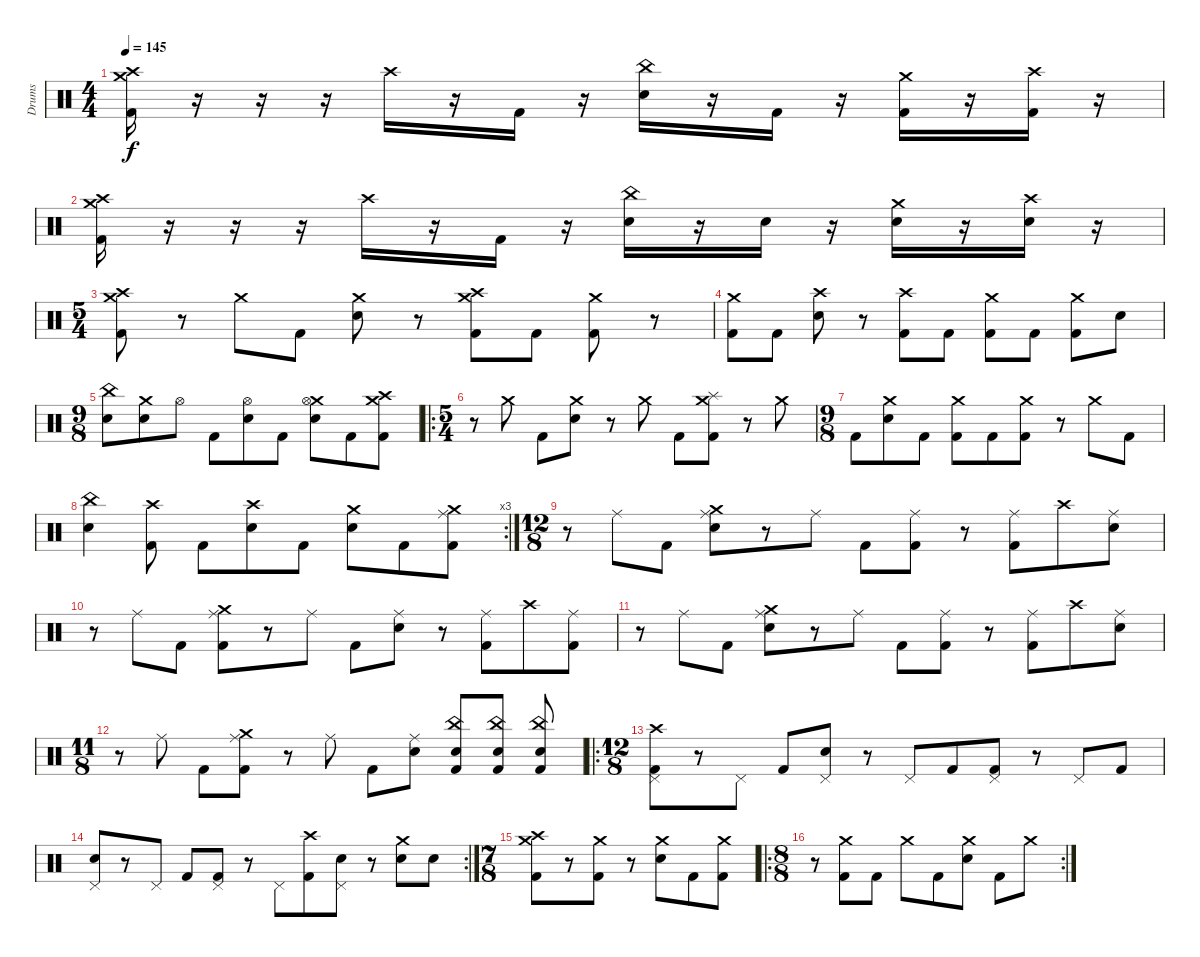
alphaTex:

\track ("Drums" "Drums") {instrument percussion}
\staff {score}
\articulation defaults
\ts (4 4)
\tempo 145
\clef neutral
\ks c
("Crash medium (hit)" "Crash high (hit)" "Kick (hit) 2").16{dy f} r.16 r.16 r.16 "Crash high (hit)".16 r.16 "Kick (hit) 2".16 r.16 ("China (hit)" "Electric Snare (hit)").16 r.16 "Kick (hit) 2".16 r.16 ("Crash medium (hit)" "Kick (hit) 2").16 r.16 ("Crash high (hit)" "Kick (hit) 2").16 r.16 |
("Crash medium (hit)" "Crash high (hit)" "Kick (hit) 2").16 r.16 r.16 r.16 "Crash high (hit)".16 r.16 "Kick (hit) 2".16 r.16 ("China (hit)" "Electric Snare (hit)").16 r.16 "Electric Snare (hit)".16 r.16 ("Crash medium (hit)" "Electric Snare (hit)").16 r.16 ("Crash high (hit)" "Electric Snare (hit)").16 r.16 |
\ts (5 4)
("Crash high (hit)" "Crash medium (hit)" "Kick (hit) 2").8 r.8 "Crash medium (hit)".8 "Kick (hit) 2".8 ("Crash medium (hit)" "Electric Snare (hit)").8 r.8 ("Crash medium (hit)" "Crash high (hit)" "Kick (hit) 2").8 "Kick (hit) 2".8 ("Crash medium (hit)" "Kick (hit) 2").8 r.8 |
("Crash medium (hit)" "Kick (hit) 2").8 "Kick (hit) 2".8 ("Crash high (hit)" "Electric Snare (hit)").8 r.8 ("Crash high (hit)" "Kick (hit) 2").8 "Kick (hit) 2".8 ("Crash medium (hit)" "Kick (hit) 2").8 "Kick (hit) 2".8 ("Crash medium (hit)" "Kick (hit) 2").8 "Electric Snare (hit)".8 |
\ts (9 8)
("China (hit)" "Electric Snare (hit)").8 ("Crash medium (hit)" "Electric Snare (hit)").8 "Hi-Hat (open)".8 "Kick (hit) 2".8 ("Hi-Hat (open)" "Electric Snare (hit)").8 "Kick (hit) 2".8 ("Crash medium (hit)" "Hi-Hat (open)" "Electric Snare (hit)").8 "Kick (hit) 2".8 ("Crash high (hit)" "Crash medium (hit)" "Kick (hit) 2").8 |
\ro
\ts (5 4)
r.8 "Crash medium (hit)".8 "Kick (hit) 2".8 ("Crash medium (hit)" "Electric Snare (hit)").8 r.8 "Crash medium (hit)".8 "Kick (hit) 2".8 ("Splash (hit)" "Crash medium (hit)" "Kick (hit) 2").8 r.8 "Crash medium (hit)".8 |
\ts (9 8)
"Kick (hit) 2".8 ("Crash medium (hit)" "Electric Snare (hit)").8 "Kick (hit) 2".8 ("Crash medium (hit)" "Kick (hit) 2").8 "Kick (hit) 2".8 ("Crash medium (hit)" "Kick (hit) 2").8 r.8 "Crash medium (hit)".8 "Kick (hit) 2".8 |
\rc 3
("China (hit)" "Electric Snare (hit)").4 ("Crash high (hit)" "Kick (hit) 2").8 "Kick (hit) 2".8 ("Crash high (hit)" "Electric Snare (hit)").8 "Kick (hit) 2".8 ("Crash medium (hit)" "Electric Snare (hit)").8 "Kick (hit) 2".8 ("Crash medium (hit)" "Ride (middle)" "Kick (hit) 2").8 |
\ts (12 8)
r.8 "Ride (middle)".8 "Kick (hit) 2".8 ("Crash medium (hit)" "Ride (middle)" "Electric Snare (hit)").8 r.8 "Ride (middle)".8 "Kick (hit) 2".8 ("Ride (middle)" "Kick (hit) 2").8 r.8 ("Ride (middle)" "Kick (hit) 2").8 "Crash high (hit)".8 ("Ride (middle)" "Electric Snare (hit)").8 |
r.8 "Ride (middle)".8 "Kick (hit) 2".8 ("Crash medium (hit)" "Ride (middle)" "Kick (hit) 2").8 r.8 "Ride (middle)".8 "Kick (hit) 2".8 ("Ride (middle)" "Electric Snare (hit)").8 r.8 ("Ride (middle)" "Kick (hit) 2").8 "Crash high (hit)".8 ("Ride (middle)" "Kick (hit) 2").8 |
r.8 "Ride (middle)".8 "Kick (hit) 2".8 ("Crash medium (hit)" "Ride (middle)" "Electric Snare (hit)").8 r.8 "Ride (middle)".8 "Kick (hit) 2".8 ("Ride (middle)" "Kick (hit) 2").8 r.8 ("Ride (middle)" "Kick (hit) 2").8 "Crash high (hit)".8 ("Ride (middle)" "Electric Snare (hit)").8 |
\ts (11 8)
r.8 "Ride (middle)".8 "Kick (hit) 2".8 ("Crash medium (hit)" "Ride (middle)" "Kick (hit) 2").8 r.8 "Ride (middle)".8 "Kick (hit) 2".8 ("Ride (middle)" "Electric Snare (hit)").8 ("China (hit)" "Electric Snare (hit)" "Kick (hit) 2").8 ("China (hit)" "Electric Snare (hit)" "Kick (hit) 2").8 ("China (hit)" "Electric Snare (hit)" "Kick (hit) 2").8 |
\ro
\ts (12 8)
("Crash high (hit)" "Pedal Hi-Hat (hit)" "Kick (hit) 2").8 r.8 "Pedal Hi-Hat (hit)".8 "Kick (hit) 2".8 ("Pedal Hi-Hat (hit)" "Electric Snare (hit)").8 r.8 "Pedal Hi-Hat (hit)".8 "Kick (hit) 2".8 ("Pedal Hi-Hat (hit)" "Kick (hit) 2").8 r.8 "Pedal Hi-Hat (hit)".8 "Kick (hit) 2".8 |
\rc 2
("Pedal Hi-Hat (hit)" "Electric Snare (hit)").8 r.8 "Pedal Hi-Hat (hit)".8 "Kick (hit) 2".8 ("Pedal Hi-Hat (hit)" "Kick (hit) 2").8 r.8 "Pedal Hi-Hat (hit)".8 ("Crash high (hit)" "Kick (hit) 2").8 ("Pedal Hi-Hat (hit)" "Electric Snare (hit)").8 r.8 ("Crash medium (hit)" "Electric Snare (hit)").8 "Electric Snare (hit)".8 |
\ts (7 8)
("Crash medium (hit)" "Crash high (hit)" "Kick (hit) 2").8 r.8 ("Crash medium (hit)" "Kick (hit) 2").8 r.8 ("Crash medium (hit)" "Electric Snare (hit)").8 "Kick (hit) 2".8 ("Crash medium (hit)" "Kick (hit) 2").8 |
\ro
\rc 2
\ts (8 8)
r.8 ("Crash medium (hit)" "Kick (hit) 2").8 "Kick (hit) 2".8 "Crash medium (hit)".8 "Kick (hit) 2".8 ("Crash medium (hit)" "Electric Snare (hit)").8 "Kick (hit) 2".8 "Crash medium (hit)".8
